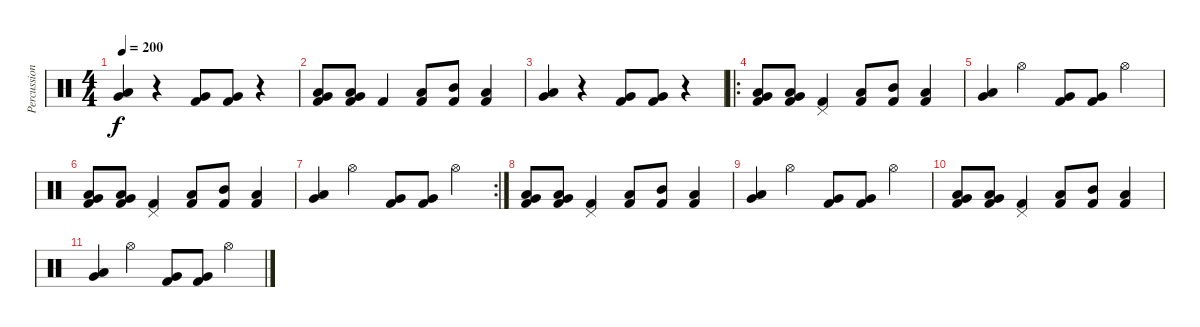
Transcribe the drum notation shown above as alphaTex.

\track ("Percussion" "Percussion") {instrument percussion}
\staff {score}
\articulation defaults
\ts (4 4)
\tempo 200
\clef neutral
\ks c
("Very Low Tom (hit)" "Low Floor Tom (hit)").4{dy f} r.4 ("Very Low Tom (hit)" "Kick (hit) 2").8 ("Very Low Tom (hit)" "Kick (hit) 2").8 r.4 |
("Very Low Tom (hit)" "Low Floor Tom (hit)" "Kick (hit) 2").8 ("Very Low Tom (hit)" "Low Floor Tom (hit)" "Kick (hit) 2").8 "Kick (hit) 2".4 ("Low Tom (hit)" "Kick (hit) 2").8 ("Mid Tom (hit)" "Kick (hit) 2").8 ("Low Tom (hit)" "Kick (hit) 2").4 |
("Very Low Tom (hit)" "Low Floor Tom (hit)").4 r.4 ("Very Low Tom (hit)" "Kick (hit) 2").8 ("Very Low Tom (hit)" "Kick (hit) 2").8 r.4 |
\ro
("Very Low Tom (hit)" "Low Floor Tom (hit)" "Kick (hit) 2").8 ("Very Low Tom (hit)" "Low Floor Tom (hit)" "Kick (hit) 2").8 ("Pedal Hi-Hat (hit)" "Kick (hit) 2").4 ("Low Tom (hit)" "Kick (hit) 2").8 ("Mid Tom (hit)" "Kick (hit) 2").8 ("Low Tom (hit)" "Kick (hit) 2").4 |
("Very Low Tom (hit)" "Low Floor Tom (hit)").4 "Hi-Hat (open)".4 ("Very Low Tom (hit)" "Kick (hit) 2").8 ("Very Low Tom (hit)" "Kick (hit) 2").8 "Hi-Hat (open)".4 |
("Very Low Tom (hit)" "Low Floor Tom (hit)" "Kick (hit) 2").8 ("Very Low Tom (hit)" "Low Floor Tom (hit)" "Kick (hit) 2").8 ("Pedal Hi-Hat (hit)" "Kick (hit) 2").4 ("Low Tom (hit)" "Kick (hit) 2").8 ("Mid Tom (hit)" "Kick (hit) 2").8 ("Low Tom (hit)" "Kick (hit) 2").4 |
\rc 2
("Very Low Tom (hit)" "Low Floor Tom (hit)").4 "Hi-Hat (open)".4 ("Very Low Tom (hit)" "Kick (hit) 2").8 ("Very Low Tom (hit)" "Kick (hit) 2").8 "Hi-Hat (open)".4 |
("Very Low Tom (hit)" "Low Floor Tom (hit)" "Kick (hit) 2").8 ("Very Low Tom (hit)" "Low Floor Tom (hit)" "Kick (hit) 2").8 ("Pedal Hi-Hat (hit)" "Kick (hit) 2").4 ("Low Tom (hit)" "Kick (hit) 2").8 ("Mid Tom (hit)" "Kick (hit) 2").8 ("Low Tom (hit)" "Kick (hit) 2").4 |
("Very Low Tom (hit)" "Low Floor Tom (hit)").4 "Hi-Hat (open)".4 ("Very Low Tom (hit)" "Kick (hit) 2").8 ("Very Low Tom (hit)" "Kick (hit) 2").8 "Hi-Hat (open)".4 |
("Very Low Tom (hit)" "Low Floor Tom (hit)" "Kick (hit) 2").8{volume 0} ("Very Low Tom (hit)" "Low Floor Tom (hit)" "Kick (hit) 2").8 ("Pedal Hi-Hat (hit)" "Kick (hit) 2").4 ("Low Tom (hit)" "Kick (hit) 2").8 ("Mid Tom (hit)" "Kick (hit) 2").8 ("Low Tom (hit)" "Kick (hit) 2").4 |
("Very Low Tom (hit)" "Low Floor Tom (hit)").4 "Hi-Hat (open)".4 ("Very Low Tom (hit)" "Kick (hit) 2").8 ("Very Low Tom (hit)" "Kick (hit) 2").8 "Hi-Hat (open)".4
